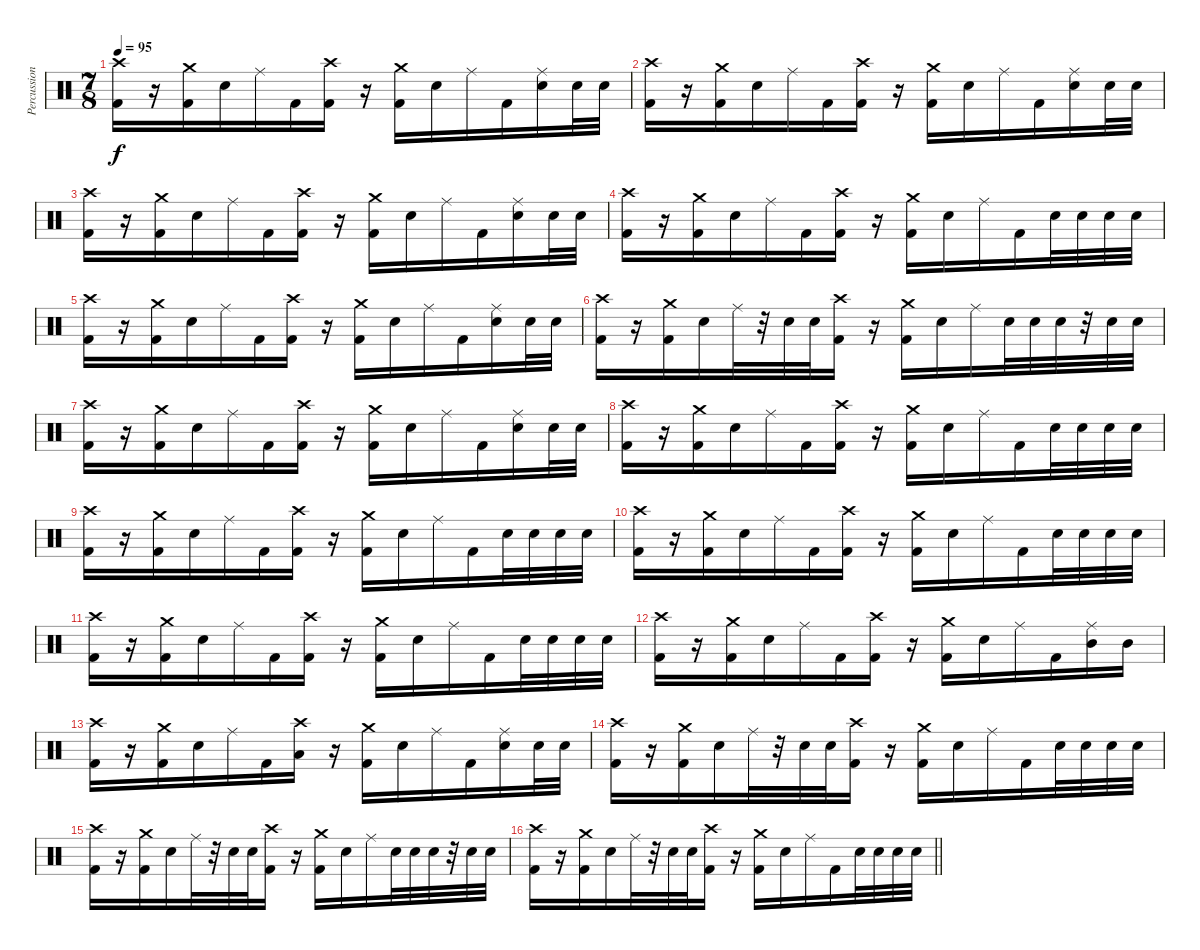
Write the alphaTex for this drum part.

\track ("Percussion" "Percussion") {instrument percussion}
\staff {score}
\articulation defaults
\ts (7 8)
\tempo 95
\clef neutral
\ks c
("Crash high (hit)" "Kick (hit) 2").16{dy f} r.16 ("Crash medium (hit)" "Kick (hit) 2").16 "Electric Snare (hit)".16 "Ride (middle)".16 "Kick (hit) 2".16 ("Crash high (hit)" "Kick (hit) 2").16 r.16 ("Crash medium (hit)" "Kick (hit) 2").16 "Electric Snare (hit)".16 "Ride (middle)".16 "Kick (hit) 2".16 ("Ride (middle)" "Electric Snare (hit)").16 "Electric Snare (hit)".32 "Electric Snare (hit)".32 |
("Crash high (hit)" "Kick (hit) 2").16 r.16 ("Crash medium (hit)" "Kick (hit) 2").16 "Electric Snare (hit)".16 "Ride (middle)".16 "Kick (hit) 2".16 ("Crash high (hit)" "Kick (hit) 2").16 r.16 ("Crash medium (hit)" "Kick (hit) 2").16 "Electric Snare (hit)".16 "Ride (middle)".16 "Kick (hit) 2".16 ("Ride (middle)" "Electric Snare (hit)").16 "Electric Snare (hit)".32 "Electric Snare (hit)".32 |
("Crash high (hit)" "Kick (hit) 2").16 r.16 ("Crash medium (hit)" "Kick (hit) 2").16 "Electric Snare (hit)".16 "Ride (middle)".16 "Kick (hit) 2".16 ("Crash high (hit)" "Kick (hit) 2").16 r.16 ("Crash medium (hit)" "Kick (hit) 2").16 "Electric Snare (hit)".16 "Ride (middle)".16 "Kick (hit) 2".16 ("Ride (middle)" "Electric Snare (hit)").16 "Electric Snare (hit)".32 "Electric Snare (hit)".32 |
("Crash high (hit)" "Kick (hit) 2").16 r.16 ("Crash medium (hit)" "Kick (hit) 2").16 "Electric Snare (hit)".16 "Ride (middle)".16 "Kick (hit) 2".16 ("Crash high (hit)" "Kick (hit) 2").16 r.16 ("Crash medium (hit)" "Kick (hit) 2").16 "Electric Snare (hit)".16 "Ride (middle)".16 "Kick (hit) 2".16 "Electric Snare (hit)".32 "Electric Snare (hit)".32 "Electric Snare (hit)".32 "Electric Snare (hit)".32 |
("Crash high (hit)" "Kick (hit) 2").16 r.16 ("Crash medium (hit)" "Kick (hit) 2").16 "Electric Snare (hit)".16 "Ride (middle)".16 "Kick (hit) 2".16 ("Crash high (hit)" "Kick (hit) 2").16 r.16 ("Crash medium (hit)" "Kick (hit) 2").16 "Electric Snare (hit)".16 "Ride (middle)".16 "Kick (hit) 2".16 ("Ride (middle)" "Electric Snare (hit)").16 "Electric Snare (hit)".32 "Electric Snare (hit)".32 |
("Crash high (hit)" "Kick (hit) 2").16 r.16 ("Crash medium (hit)" "Kick (hit) 2").16 "Electric Snare (hit)".16 "Ride (middle)".32 r.32 "Electric Snare (hit)".32 "Electric Snare (hit)".32 ("Crash high (hit)" "Kick (hit) 2").16 r.16 ("Crash medium (hit)" "Kick (hit) 2").16 "Electric Snare (hit)".16 "Ride (middle)".16 "Electric Snare (hit)".32 "Electric Snare (hit)".32 "Electric Snare (hit)".32 r.32 "Electric Snare (hit)".32 "Electric Snare (hit)".32 |
("Crash high (hit)" "Kick (hit) 2").16 r.16 ("Crash medium (hit)" "Kick (hit) 2").16 "Electric Snare (hit)".16 "Ride (middle)".16 "Kick (hit) 2".16 ("Crash high (hit)" "Kick (hit) 2").16 r.16 ("Crash medium (hit)" "Kick (hit) 2").16 "Electric Snare (hit)".16 "Ride (middle)".16 "Kick (hit) 2".16 ("Ride (middle)" "Electric Snare (hit)").16 "Electric Snare (hit)".32 "Electric Snare (hit)".32 |
("Crash high (hit)" "Kick (hit) 2").16 r.16 ("Crash medium (hit)" "Kick (hit) 2").16 "Electric Snare (hit)".16 "Ride (middle)".16 "Kick (hit) 2".16 ("Crash high (hit)" "Kick (hit) 2").16 r.16 ("Crash medium (hit)" "Kick (hit) 2").16 "Electric Snare (hit)".16 "Ride (middle)".16 "Kick (hit) 2".16 "Electric Snare (hit)".32 "Electric Snare (hit)".32 "Electric Snare (hit)".32 "Electric Snare (hit)".32 |
("Crash high (hit)" "Kick (hit) 2").16 r.16 ("Crash medium (hit)" "Kick (hit) 2").16 "Electric Snare (hit)".16 "Ride (middle)".16 "Kick (hit) 2".16 ("Crash high (hit)" "Kick (hit) 2").16 r.16 ("Crash medium (hit)" "Kick (hit) 2").16 "Electric Snare (hit)".16 "Ride (middle)".16 "Kick (hit) 2".16 "Electric Snare (hit)".32 "Electric Snare (hit)".32 "Electric Snare (hit)".32 "Electric Snare (hit)".32 |
("Crash high (hit)" "Kick (hit) 2").16 r.16 ("Crash medium (hit)" "Kick (hit) 2").16 "Electric Snare (hit)".16 "Ride (middle)".16 "Kick (hit) 2".16 ("Crash high (hit)" "Kick (hit) 2").16 r.16 ("Crash medium (hit)" "Kick (hit) 2").16 "Electric Snare (hit)".16 "Ride (middle)".16 "Kick (hit) 2".16 "Electric Snare (hit)".32 "Electric Snare (hit)".32 "Electric Snare (hit)".32 "Electric Snare (hit)".32 |
("Crash high (hit)" "Kick (hit) 2").16 r.16 ("Crash medium (hit)" "Kick (hit) 2").16 "Electric Snare (hit)".16 "Ride (middle)".16 "Kick (hit) 2".16 ("Crash high (hit)" "Kick (hit) 2").16 r.16 ("Crash medium (hit)" "Kick (hit) 2").16 "Electric Snare (hit)".16 "Ride (middle)".16 "Kick (hit) 2".16 "Electric Snare (hit)".32 "Electric Snare (hit)".32 "Electric Snare (hit)".32 "Electric Snare (hit)".32 |
("Crash high (hit)" "Kick (hit) 2").16 r.16 ("Crash medium (hit)" "Kick (hit) 2").16 "Electric Snare (hit)".16 "Ride (middle)".16 "Kick (hit) 2".16 ("Crash high (hit)" "Kick (hit) 2").16 r.16 ("Crash medium (hit)" "Kick (hit) 2").16 "Electric Snare (hit)".16 "Ride (middle)".16 "Kick (hit) 2".16 ("Ride (middle)" "Mid Tom (hit)").16 "Mid Tom (hit)".16 |
("Crash high (hit)" "Kick (hit) 2").16 r.16 ("Crash medium (hit)" "Kick (hit) 2").16 "Electric Snare (hit)".16 "Ride (middle)".16 "Kick (hit) 2".16 ("Crash high (hit)" "Low Tom (hit)").16 r.16 ("Crash medium (hit)" "Kick (hit) 2").16 "Electric Snare (hit)".16 "Ride (middle)".16 "Kick (hit) 2".16 ("Ride (middle)" "Electric Snare (hit)").16 "Electric Snare (hit)".32 "Electric Snare (hit)".32 |
("Crash high (hit)" "Kick (hit) 2").16 r.16 ("Crash medium (hit)" "Kick (hit) 2").16 "Electric Snare (hit)".16 "Ride (middle)".32 r.32 "Electric Snare (hit)".32 "Electric Snare (hit)".32 ("Crash high (hit)" "Kick (hit) 2").16 r.16 ("Crash medium (hit)" "Kick (hit) 2").16 "Electric Snare (hit)".16 "Ride (middle)".16 "Kick (hit) 2".16 "Electric Snare (hit)".32 "Electric Snare (hit)".32 "Electric Snare (hit)".32 "Electric Snare (hit)".32 |
("Crash high (hit)" "Kick (hit) 2").16 r.16 ("Crash medium (hit)" "Kick (hit) 2").16 "Electric Snare (hit)".16 "Ride (middle)".32 r.32 "Electric Snare (hit)".32 "Electric Snare (hit)".32 ("Crash high (hit)" "Kick (hit) 2").16 r.16 ("Crash medium (hit)" "Kick (hit) 2").16 "Electric Snare (hit)".16 "Ride (middle)".16 "Electric Snare (hit)".32 "Electric Snare (hit)".32 "Electric Snare (hit)".32 r.32 "Electric Snare (hit)".32 "Electric Snare (hit)".32 |
\barLineRight lightlight
("Crash high (hit)" "Kick (hit) 2").16 r.16 ("Crash medium (hit)" "Kick (hit) 2").16 "Electric Snare (hit)".16 "Ride (middle)".32 r.32 "Electric Snare (hit)".32 "Electric Snare (hit)".32 ("Crash high (hit)" "Kick (hit) 2").16 r.16 ("Crash medium (hit)" "Kick (hit) 2").16 "Electric Snare (hit)".16 "Ride (middle)".16 "Kick (hit) 2".16 "Electric Snare (hit)".32 "Electric Snare (hit)".32 "Electric Snare (hit)".32 "Electric Snare (hit)".32
